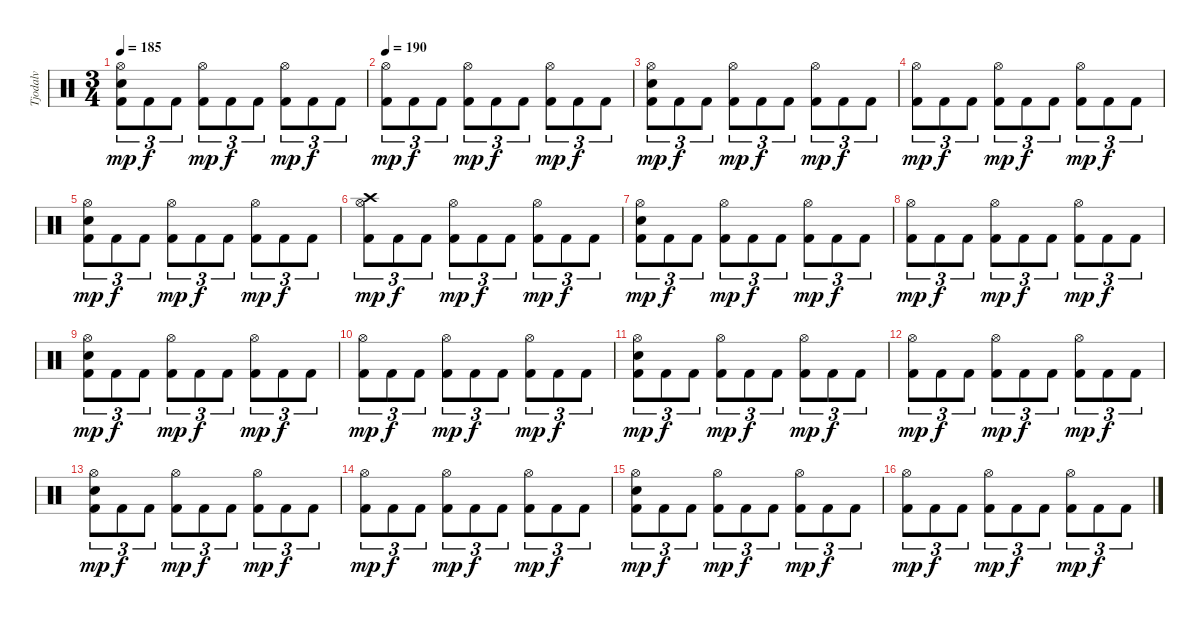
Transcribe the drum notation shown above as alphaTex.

\track ("Tjodalv" "Tjodalv") {instrument percussion}
\staff {score}
\articulation defaults
\ts (3 4)
\tempo 185
\clef neutral
\ks c
("Hi-Hat (open)" "Electric Snare (hit)" "Kick (hit) 2").8{tu (3 2) dy mp} "Kick (hit) 2".8{tu (3 2) dy f} "Kick (hit) 2".8{tu (3 2)} ("Hi-Hat (open)" "Kick (hit) 2").8{tu (3 2) dy mp} "Kick (hit) 2".8{tu (3 2) dy f} "Kick (hit) 2".8{tu (3 2)} ("Hi-Hat (open)" "Kick (hit) 2").8{tu (3 2) dy mp} "Kick (hit) 2".8{tu (3 2) dy f} "Kick (hit) 2".8{tu (3 2)} |
\tempo 190
("Hi-Hat (open)" "Kick (hit) 2").8{tu (3 2) dy mp} "Kick (hit) 2".8{tu (3 2) dy f} "Kick (hit) 2".8{tu (3 2)} ("Hi-Hat (open)" "Kick (hit) 2").8{tu (3 2) dy mp} "Kick (hit) 2".8{tu (3 2) dy f} "Kick (hit) 2".8{tu (3 2)} ("Hi-Hat (open)" "Kick (hit) 2").8{tu (3 2) dy mp} "Kick (hit) 2".8{tu (3 2) dy f} "Kick (hit) 2".8{tu (3 2)} |
("Hi-Hat (open)" "Electric Snare (hit)" "Kick (hit) 2").8{tu (3 2) dy mp} "Kick (hit) 2".8{tu (3 2) dy f} "Kick (hit) 2".8{tu (3 2)} ("Hi-Hat (open)" "Kick (hit) 2").8{tu (3 2) dy mp} "Kick (hit) 2".8{tu (3 2) dy f} "Kick (hit) 2".8{tu (3 2)} ("Hi-Hat (open)" "Kick (hit) 2").8{tu (3 2) dy mp} "Kick (hit) 2".8{tu (3 2) dy f} "Kick (hit) 2".8{tu (3 2)} |
("Hi-Hat (open)" "Kick (hit) 2").8{tu (3 2) dy mp} "Kick (hit) 2".8{tu (3 2) dy f} "Kick (hit) 2".8{tu (3 2)} ("Hi-Hat (open)" "Kick (hit) 2").8{tu (3 2) dy mp} "Kick (hit) 2".8{tu (3 2) dy f} "Kick (hit) 2".8{tu (3 2)} ("Hi-Hat (open)" "Kick (hit) 2").8{tu (3 2) dy mp} "Kick (hit) 2".8{tu (3 2) dy f} "Kick (hit) 2".8{tu (3 2)} |
("Hi-Hat (open)" "Electric Snare (hit)" "Kick (hit) 2").8{tu (3 2) dy mp} "Kick (hit) 2".8{tu (3 2) dy f} "Kick (hit) 2".8{tu (3 2)} ("Hi-Hat (open)" "Kick (hit) 2").8{tu (3 2) dy mp} "Kick (hit) 2".8{tu (3 2) dy f} "Kick (hit) 2".8{tu (3 2)} ("Hi-Hat (open)" "Kick (hit) 2").8{tu (3 2) dy mp} "Kick (hit) 2".8{tu (3 2) dy f} "Kick (hit) 2".8{tu (3 2)} |
("Crash high (hit)" "Hi-Hat (open)" "Kick (hit) 2").8{tu (3 2) dy mp} "Kick (hit) 2".8{tu (3 2) dy f} "Kick (hit) 2".8{tu (3 2)} ("Hi-Hat (open)" "Kick (hit) 2").8{tu (3 2) dy mp} "Kick (hit) 2".8{tu (3 2) dy f} "Kick (hit) 2".8{tu (3 2)} ("Hi-Hat (open)" "Kick (hit) 2").8{tu (3 2) dy mp} "Kick (hit) 2".8{tu (3 2) dy f} "Kick (hit) 2".8{tu (3 2)} |
("Hi-Hat (open)" "Electric Snare (hit)" "Kick (hit) 2").8{tu (3 2) dy mp} "Kick (hit) 2".8{tu (3 2) dy f} "Kick (hit) 2".8{tu (3 2)} ("Hi-Hat (open)" "Kick (hit) 2").8{tu (3 2) dy mp} "Kick (hit) 2".8{tu (3 2) dy f} "Kick (hit) 2".8{tu (3 2)} ("Hi-Hat (open)" "Kick (hit) 2").8{tu (3 2) dy mp} "Kick (hit) 2".8{tu (3 2) dy f} "Kick (hit) 2".8{tu (3 2)} |
("Hi-Hat (open)" "Kick (hit) 2").8{tu (3 2) dy mp} "Kick (hit) 2".8{tu (3 2) dy f} "Kick (hit) 2".8{tu (3 2)} ("Hi-Hat (open)" "Kick (hit) 2").8{tu (3 2) dy mp} "Kick (hit) 2".8{tu (3 2) dy f} "Kick (hit) 2".8{tu (3 2)} ("Hi-Hat (open)" "Kick (hit) 2").8{tu (3 2) dy mp} "Kick (hit) 2".8{tu (3 2) dy f} "Kick (hit) 2".8{tu (3 2)} |
("Hi-Hat (open)" "Electric Snare (hit)" "Kick (hit) 2").8{tu (3 2) dy mp} "Kick (hit) 2".8{tu (3 2) dy f} "Kick (hit) 2".8{tu (3 2)} ("Hi-Hat (open)" "Kick (hit) 2").8{tu (3 2) dy mp} "Kick (hit) 2".8{tu (3 2) dy f} "Kick (hit) 2".8{tu (3 2)} ("Hi-Hat (open)" "Kick (hit) 2").8{tu (3 2) dy mp} "Kick (hit) 2".8{tu (3 2) dy f} "Kick (hit) 2".8{tu (3 2)} |
("Hi-Hat (open)" "Kick (hit) 2").8{tu (3 2) dy mp} "Kick (hit) 2".8{tu (3 2) dy f} "Kick (hit) 2".8{tu (3 2)} ("Hi-Hat (open)" "Kick (hit) 2").8{tu (3 2) dy mp} "Kick (hit) 2".8{tu (3 2) dy f} "Kick (hit) 2".8{tu (3 2)} ("Hi-Hat (open)" "Kick (hit) 2").8{tu (3 2) dy mp} "Kick (hit) 2".8{tu (3 2) dy f} "Kick (hit) 2".8{tu (3 2)} |
("Hi-Hat (open)" "Electric Snare (hit)" "Kick (hit) 2").8{tu (3 2) dy mp} "Kick (hit) 2".8{tu (3 2) dy f} "Kick (hit) 2".8{tu (3 2)} ("Hi-Hat (open)" "Kick (hit) 2").8{tu (3 2) dy mp} "Kick (hit) 2".8{tu (3 2) dy f} "Kick (hit) 2".8{tu (3 2)} ("Hi-Hat (open)" "Kick (hit) 2").8{tu (3 2) dy mp} "Kick (hit) 2".8{tu (3 2) dy f} "Kick (hit) 2".8{tu (3 2)} |
("Hi-Hat (open)" "Kick (hit) 2").8{tu (3 2) dy mp} "Kick (hit) 2".8{tu (3 2) dy f} "Kick (hit) 2".8{tu (3 2)} ("Hi-Hat (open)" "Kick (hit) 2").8{tu (3 2) dy mp} "Kick (hit) 2".8{tu (3 2) dy f} "Kick (hit) 2".8{tu (3 2)} ("Hi-Hat (open)" "Kick (hit) 2").8{tu (3 2) dy mp} "Kick (hit) 2".8{tu (3 2) dy f} "Kick (hit) 2".8{tu (3 2)} |
("Hi-Hat (open)" "Electric Snare (hit)" "Kick (hit) 2").8{tu (3 2) dy mp} "Kick (hit) 2".8{tu (3 2) dy f} "Kick (hit) 2".8{tu (3 2)} ("Hi-Hat (open)" "Kick (hit) 2").8{tu (3 2) dy mp} "Kick (hit) 2".8{tu (3 2) dy f} "Kick (hit) 2".8{tu (3 2)} ("Hi-Hat (open)" "Kick (hit) 2").8{tu (3 2) dy mp} "Kick (hit) 2".8{tu (3 2) dy f} "Kick (hit) 2".8{tu (3 2)} |
("Hi-Hat (open)" "Kick (hit) 2").8{tu (3 2) dy mp} "Kick (hit) 2".8{tu (3 2) dy f} "Kick (hit) 2".8{tu (3 2)} ("Hi-Hat (open)" "Kick (hit) 2").8{tu (3 2) dy mp} "Kick (hit) 2".8{tu (3 2) dy f} "Kick (hit) 2".8{tu (3 2)} ("Hi-Hat (open)" "Kick (hit) 2").8{tu (3 2) dy mp} "Kick (hit) 2".8{tu (3 2) dy f} "Kick (hit) 2".8{tu (3 2)} |
("Hi-Hat (open)" "Electric Snare (hit)" "Kick (hit) 2").8{tu (3 2) dy mp} "Kick (hit) 2".8{tu (3 2) dy f} "Kick (hit) 2".8{tu (3 2)} ("Hi-Hat (open)" "Kick (hit) 2").8{tu (3 2) dy mp} "Kick (hit) 2".8{tu (3 2) dy f} "Kick (hit) 2".8{tu (3 2)} ("Hi-Hat (open)" "Kick (hit) 2").8{tu (3 2) dy mp} "Kick (hit) 2".8{tu (3 2) dy f} "Kick (hit) 2".8{tu (3 2)} |
("Hi-Hat (open)" "Kick (hit) 2").8{tu (3 2) dy mp} "Kick (hit) 2".8{tu (3 2) dy f} "Kick (hit) 2".8{tu (3 2)} ("Hi-Hat (open)" "Kick (hit) 2").8{tu (3 2) dy mp} "Kick (hit) 2".8{tu (3 2) dy f} "Kick (hit) 2".8{tu (3 2)} ("Hi-Hat (open)" "Kick (hit) 2").8{tu (3 2) dy mp} "Kick (hit) 2".8{tu (3 2) dy f} "Kick (hit) 2".8{tu (3 2)}
